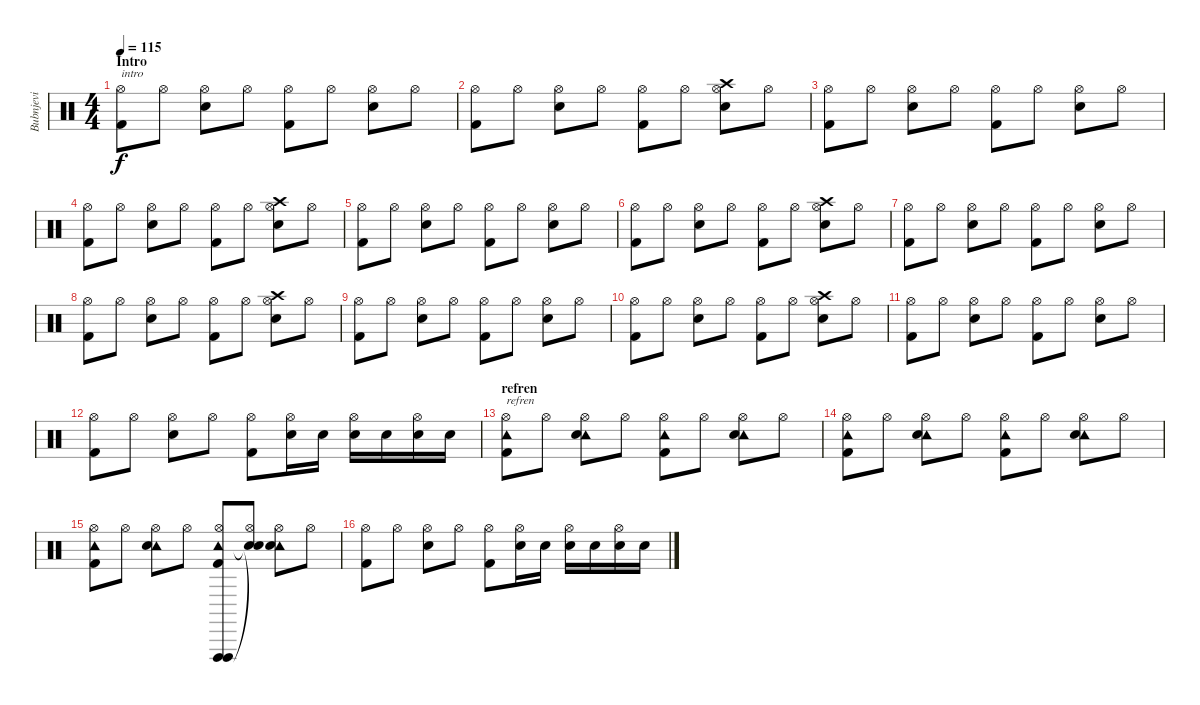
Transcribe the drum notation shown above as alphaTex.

\track ("Bubnjevi" "Bubnjevi") {instrument percussion}
\staff {score}
\articulation defaults
\ts (4 4)
\section ("" "Intro")
\tempo 115
\clef neutral
\ks c
("Hi-Hat (open)" "Kick (hit) 2").8{txt "intro" dy f} "Hi-Hat (open)".8 ("Hi-Hat (open)" "Electric Snare (hit)").8 "Hi-Hat (open)".8 ("Hi-Hat (open)" "Kick (hit) 2").8 "Hi-Hat (open)".8 ("Hi-Hat (open)" "Electric Snare (hit)").8 "Hi-Hat (open)".8 |
("Hi-Hat (open)" "Kick (hit) 2").8 "Hi-Hat (open)".8 ("Hi-Hat (open)" "Electric Snare (hit)").8 "Hi-Hat (open)".8 ("Hi-Hat (open)" "Kick (hit) 2").8 "Hi-Hat (open)".8 ("Hi-Hat (open)" "Crash high (hit)" "Electric Snare (hit)").8 "Hi-Hat (open)".8 |
("Hi-Hat (open)" "Kick (hit) 2").8 "Hi-Hat (open)".8 ("Hi-Hat (open)" "Electric Snare (hit)").8 "Hi-Hat (open)".8 ("Hi-Hat (open)" "Kick (hit) 2").8 "Hi-Hat (open)".8 ("Hi-Hat (open)" "Electric Snare (hit)").8 "Hi-Hat (open)".8 |
("Hi-Hat (open)" "Kick (hit) 2").8 "Hi-Hat (open)".8 ("Hi-Hat (open)" "Electric Snare (hit)").8 "Hi-Hat (open)".8 ("Hi-Hat (open)" "Kick (hit) 2").8 "Hi-Hat (open)".8 ("Hi-Hat (open)" "Crash high (hit)" "Electric Snare (hit)").8 "Hi-Hat (open)".8 |
("Hi-Hat (open)" "Kick (hit) 2").8 "Hi-Hat (open)".8 ("Hi-Hat (open)" "Electric Snare (hit)").8 "Hi-Hat (open)".8 ("Hi-Hat (open)" "Kick (hit) 2").8 "Hi-Hat (open)".8 ("Hi-Hat (open)" "Electric Snare (hit)").8 "Hi-Hat (open)".8 |
("Hi-Hat (open)" "Kick (hit) 2").8 "Hi-Hat (open)".8 ("Hi-Hat (open)" "Electric Snare (hit)").8 "Hi-Hat (open)".8 ("Hi-Hat (open)" "Kick (hit) 2").8 "Hi-Hat (open)".8 ("Hi-Hat (open)" "Crash high (hit)" "Electric Snare (hit)").8 "Hi-Hat (open)".8 |
("Hi-Hat (open)" "Kick (hit) 2").8 "Hi-Hat (open)".8 ("Hi-Hat (open)" "Electric Snare (hit)").8 "Hi-Hat (open)".8 ("Hi-Hat (open)" "Kick (hit) 2").8 "Hi-Hat (open)".8 ("Hi-Hat (open)" "Electric Snare (hit)").8 "Hi-Hat (open)".8 |
("Hi-Hat (open)" "Kick (hit) 2").8 "Hi-Hat (open)".8 ("Hi-Hat (open)" "Electric Snare (hit)").8 "Hi-Hat (open)".8 ("Hi-Hat (open)" "Kick (hit) 2").8 "Hi-Hat (open)".8 ("Hi-Hat (open)" "Crash high (hit)" "Electric Snare (hit)").8 "Hi-Hat (open)".8 |
("Hi-Hat (open)" "Kick (hit) 2").8 "Hi-Hat (open)".8 ("Hi-Hat (open)" "Electric Snare (hit)").8 "Hi-Hat (open)".8 ("Hi-Hat (open)" "Kick (hit) 2").8 "Hi-Hat (open)".8 ("Hi-Hat (open)" "Electric Snare (hit)").8 "Hi-Hat (open)".8 |
("Hi-Hat (open)" "Kick (hit) 2").8 "Hi-Hat (open)".8 ("Hi-Hat (open)" "Electric Snare (hit)").8 "Hi-Hat (open)".8 ("Hi-Hat (open)" "Kick (hit) 2").8 "Hi-Hat (open)".8 ("Hi-Hat (open)" "Crash high (hit)" "Electric Snare (hit)").8 "Hi-Hat (open)".8 |
("Hi-Hat (open)" "Kick (hit) 2").8 "Hi-Hat (open)".8 ("Hi-Hat (open)" "Electric Snare (hit)").8 "Hi-Hat (open)".8 ("Hi-Hat (open)" "Kick (hit) 2").8 "Hi-Hat (open)".8 ("Hi-Hat (open)" "Electric Snare (hit)").8 "Hi-Hat (open)".8 |
("Hi-Hat (open)" "Kick (hit) 2").8 "Hi-Hat (open)".8 ("Hi-Hat (open)" "Electric Snare (hit)").8 "Hi-Hat (open)".8 ("Hi-Hat (open)" "Kick (hit) 2").8 ("Hi-Hat (open)" "Electric Snare (hit)").16 "Electric Snare (hit)".16 ("Hi-Hat (open)" "Electric Snare (hit)").16 "Electric Snare (hit)".16 ("Hi-Hat (open)" "Electric Snare (hit)").16 "Electric Snare (hit)".16 |
\section ("" "refren")
("Hi-Hat (open)" "Tambourine (hit)" "Kick (hit) 2").8{txt "refren"} "Hi-Hat (open)".8 ("Hi-Hat (open)" "Tambourine (hit)" "Electric Snare (hit)").8 "Hi-Hat (open)".8 ("Hi-Hat (open)" "Tambourine (hit)" "Kick (hit) 2").8 "Hi-Hat (open)".8 ("Hi-Hat (open)" "Tambourine (hit)" "Electric Snare (hit)").8 "Hi-Hat (open)".8 |
("Hi-Hat (open)" "Tambourine (hit)" "Kick (hit) 2").8 "Hi-Hat (open)".8 ("Hi-Hat (open)" "Tambourine (hit)" "Electric Snare (hit)").8 "Hi-Hat (open)".8 ("Hi-Hat (open)" "Tambourine (hit)" "Kick (hit) 2").8 "Hi-Hat (open)".8 ("Hi-Hat (open)" "Tambourine (hit)" "Electric Snare (hit)").8 "Hi-Hat (open)".8 |
("Hi-Hat (open)" "Tambourine (hit)" "Kick (hit) 2").8 "Hi-Hat (open)".8 ("Hi-Hat (open)" "Tambourine (hit)" "Electric Snare (hit)").8 "Hi-Hat (open)".8 ("Hi-Hat (open)" "Tambourine (hit)" "Vibraslap (hit)" "Vibraslap (hit)" "Kick (hit) 2").8 ("Hi-Hat (open)" "Snare (hit)"{t} "Snare (hit)"{t}).8 ("Hi-Hat (open)" "Tambourine (hit)" "Electric Snare (hit)").8 "Hi-Hat (open)".8 |
("Hi-Hat (open)" "Kick (hit) 2").8 "Hi-Hat (open)".8 ("Hi-Hat (open)" "Electric Snare (hit)").8 "Hi-Hat (open)".8 ("Hi-Hat (open)" "Kick (hit) 2").8 ("Hi-Hat (open)" "Electric Snare (hit)").16 "Electric Snare (hit)".16 ("Hi-Hat (open)" "Electric Snare (hit)").16 "Electric Snare (hit)".16 ("Hi-Hat (open)" "Electric Snare (hit)").16 "Electric Snare (hit)".16
